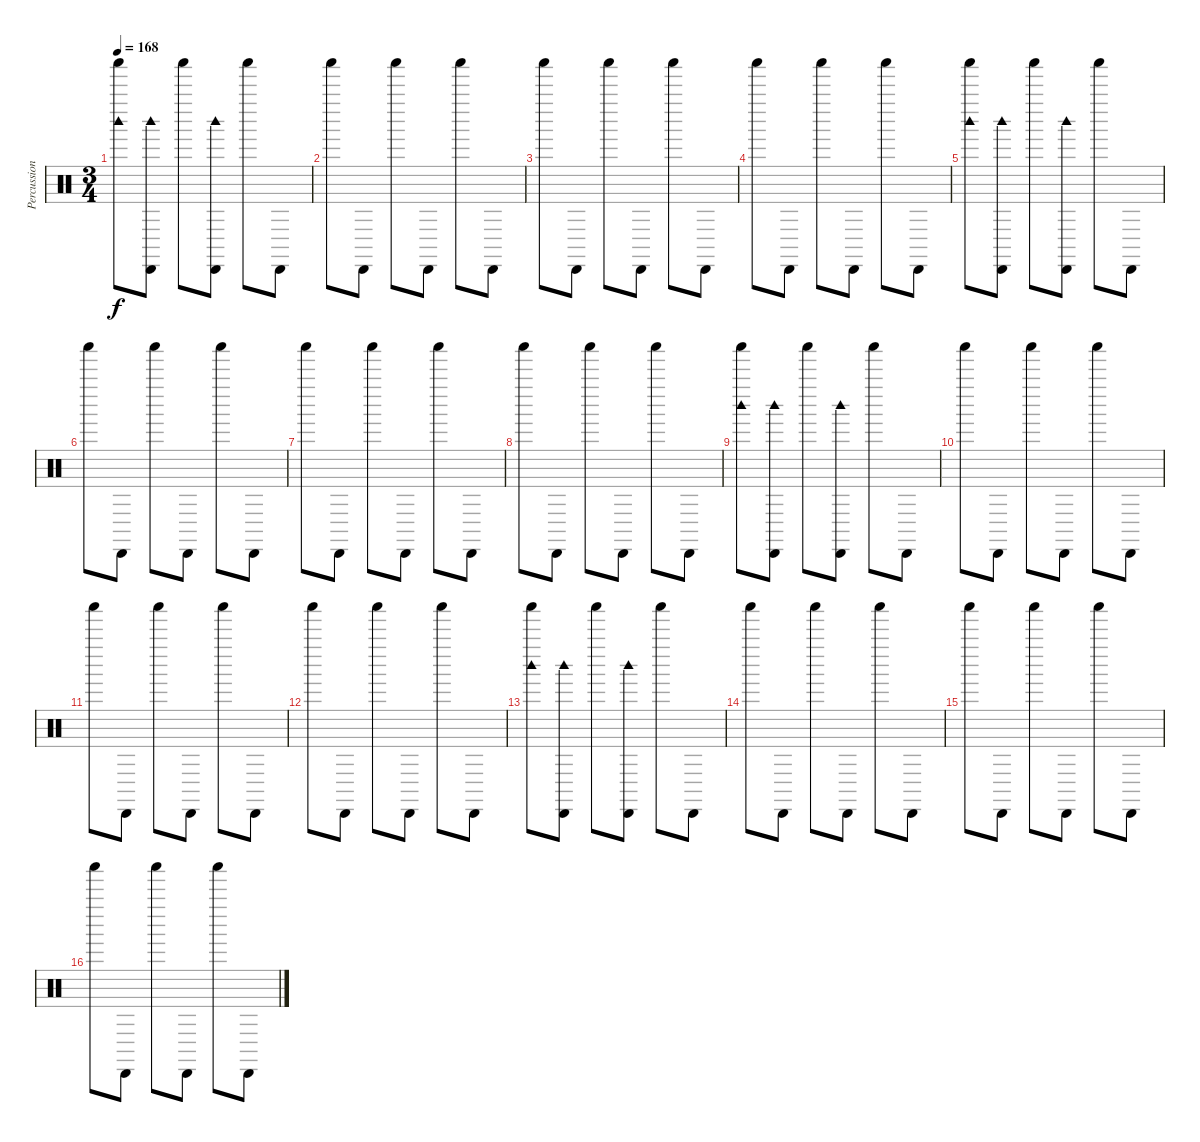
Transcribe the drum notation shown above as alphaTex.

\track ("Percussion" "Percussion") {instrument percussion}
\staff {score}
\articulation defaults
\ts (3 4)
\tempo 168
\clef neutral
\ks c
("Shaker (hit)" "Woodblock high (hit)").8{dy f} ("Cabasa (hit)" "Woodblock high (hit)").8 "Shaker (hit)".8 ("Cabasa (hit)" "Woodblock high (hit)").8 "Shaker (hit)".8 "Cabasa (hit)".8 |
"Shaker (hit)".8 "Cabasa (hit)".8 "Shaker (hit)".8 "Cabasa (hit)".8 "Shaker (hit)".8 "Cabasa (hit)".8 |
"Shaker (hit)".8 "Cabasa (hit)".8 "Shaker (hit)".8 "Cabasa (hit)".8 "Shaker (hit)".8 "Cabasa (hit)".8 |
"Shaker (hit)".8 "Cabasa (hit)".8 "Shaker (hit)".8 "Cabasa (hit)".8 "Shaker (hit)".8 "Cabasa (hit)".8 |
("Shaker (hit)" "Woodblock high (hit)").8 ("Cabasa (hit)" "Woodblock high (hit)").8 "Shaker (hit)".8 ("Cabasa (hit)" "Woodblock high (hit)").8 "Shaker (hit)".8 "Cabasa (hit)".8 |
"Shaker (hit)".8 "Cabasa (hit)".8 "Shaker (hit)".8 "Cabasa (hit)".8 "Shaker (hit)".8 "Cabasa (hit)".8 |
"Shaker (hit)".8 "Cabasa (hit)".8 "Shaker (hit)".8 "Cabasa (hit)".8 "Shaker (hit)".8 "Cabasa (hit)".8 |
"Shaker (hit)".8 "Cabasa (hit)".8 "Shaker (hit)".8 "Cabasa (hit)".8 "Shaker (hit)".8 "Cabasa (hit)".8 |
("Shaker (hit)" "Woodblock high (hit)").8 ("Cabasa (hit)" "Woodblock high (hit)").8 "Shaker (hit)".8 ("Cabasa (hit)" "Woodblock high (hit)").8 "Shaker (hit)".8 "Cabasa (hit)".8 |
"Shaker (hit)".8 "Cabasa (hit)".8 "Shaker (hit)".8 "Cabasa (hit)".8 "Shaker (hit)".8 "Cabasa (hit)".8 |
"Shaker (hit)".8 "Cabasa (hit)".8 "Shaker (hit)".8 "Cabasa (hit)".8 "Shaker (hit)".8 "Cabasa (hit)".8 |
"Shaker (hit)".8 "Cabasa (hit)".8 "Shaker (hit)".8 "Cabasa (hit)".8 "Shaker (hit)".8 "Cabasa (hit)".8 |
("Shaker (hit)" "Woodblock high (hit)").8 ("Cabasa (hit)" "Woodblock high (hit)").8 "Shaker (hit)".8 ("Cabasa (hit)" "Woodblock high (hit)").8 "Shaker (hit)".8 "Cabasa (hit)".8 |
"Shaker (hit)".8 "Cabasa (hit)".8 "Shaker (hit)".8 "Cabasa (hit)".8 "Shaker (hit)".8 "Cabasa (hit)".8 |
"Shaker (hit)".8 "Cabasa (hit)".8 "Shaker (hit)".8 "Cabasa (hit)".8 "Shaker (hit)".8 "Cabasa (hit)".8 |
"Shaker (hit)".8 "Cabasa (hit)".8 "Shaker (hit)".8 "Cabasa (hit)".8 "Shaker (hit)".8 "Cabasa (hit)".8
